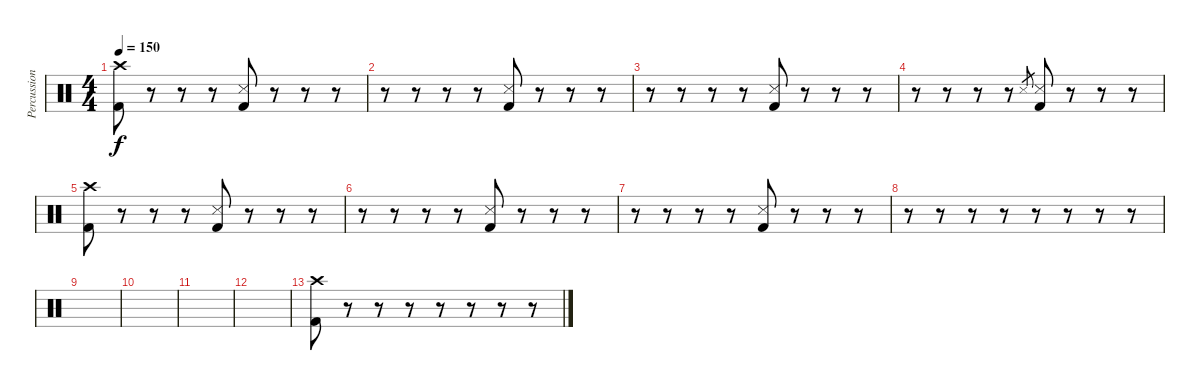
\track ("Percussion" "Percussion") {instrument percussion}
\staff {score}
\articulation defaults
\ts (4 4)
\tempo 150
\clef neutral
\ks c
("Crash high (hit)" "Kick (hit) 2").8{dy f} r.8 r.8 r.8 ("Snare (side stick) 3" "Kick (hit) 2").8 r.8 r.8 r.8 |
r.8 r.8 r.8 r.8 ("Snare (side stick) 3" "Kick (hit) 2").8 r.8 r.8 r.8 |
r.8 r.8 r.8 r.8 ("Snare (side stick) 3" "Kick (hit) 2").8 r.8 r.8 r.8 |
r.8 r.8 r.8 r.8 "Snare (side stick) 3".8{gr} ("Snare (side stick) 3" "Kick (hit) 2").8 r.8 r.8 r.8 |
("Crash high (hit)" "Kick (hit) 2").8 r.8 r.8 r.8 ("Snare (side stick) 3" "Kick (hit) 2").8 r.8 r.8 r.8 |
r.8 r.8 r.8 r.8 ("Snare (side stick) 3" "Kick (hit) 2").8 r.8 r.8 r.8 |
r.8 r.8 r.8 r.8 ("Snare (side stick) 3" "Kick (hit) 2").8 r.8 r.8 r.8 |
r.8 r.8 r.8 r.8 r.8 r.8 r.8 r.8 |
|
|
|
|
("Crash high (hit)" "Kick (hit) 2").8 r.8 r.8 r.8 r.8 r.8 r.8 r.8
